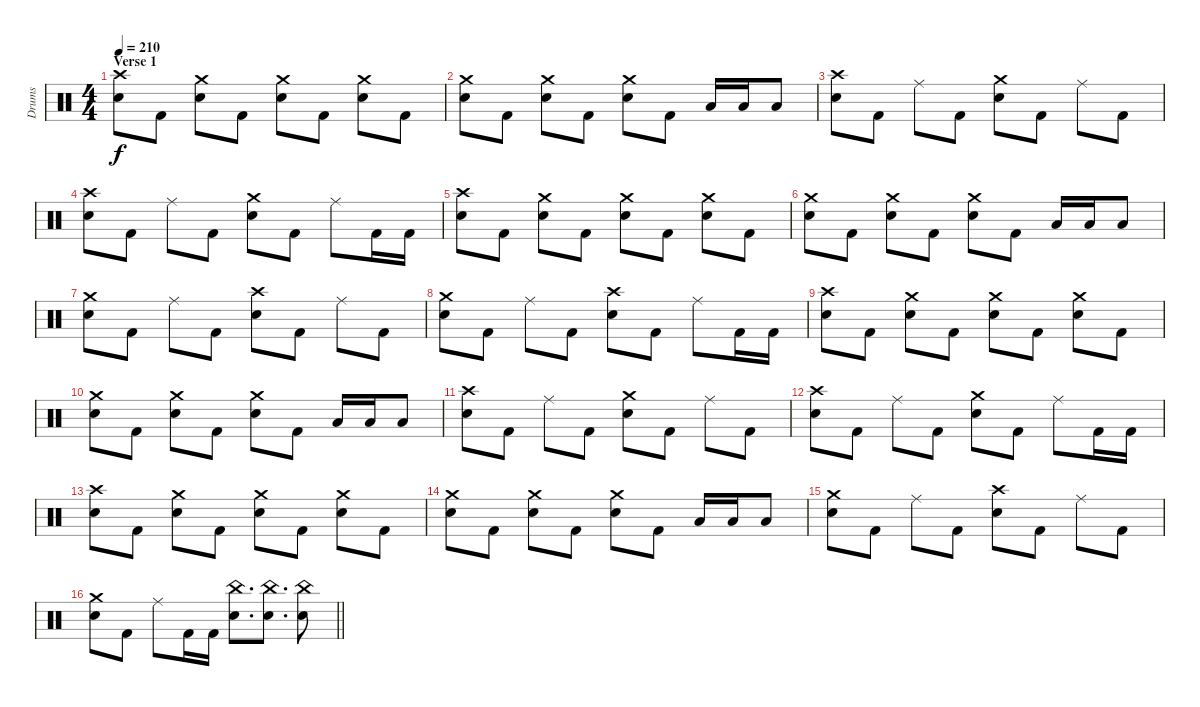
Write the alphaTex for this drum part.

\track ("Drums" "Drums") {instrument percussion}
\staff {score}
\articulation defaults
\ts (4 4)
\section ("" "Verse 1")
\tempo 210
\clef neutral
\ks c
("Crash high (hit)" "Electric Snare (hit)").8{dy f} "Kick (hit) 2".8 ("Crash medium (hit)" "Electric Snare (hit)").8 "Kick (hit) 2".8 ("Crash medium (hit)" "Electric Snare (hit)").8 "Kick (hit) 2".8 ("Crash medium (hit)" "Electric Snare (hit)").8 "Kick (hit) 2".8 |
("Crash medium (hit)" "Electric Snare (hit)").8 "Kick (hit) 2".8 ("Crash medium (hit)" "Electric Snare (hit)").8 "Kick (hit) 2".8 ("Crash medium (hit)" "Electric Snare (hit)").8 "Kick (hit) 2".8 "Low Tom (hit)".16 "Low Tom (hit)".16 "Low Tom (hit)".8 |
("Crash high (hit)" "Electric Snare (hit)").8 "Kick (hit) 2".8 "Ride (middle)".8 "Kick (hit) 2".8 ("Crash medium (hit)" "Electric Snare (hit)").8 "Kick (hit) 2".8 "Ride (middle)".8 "Kick (hit) 2".8 |
("Crash high (hit)" "Electric Snare (hit)").8 "Kick (hit) 2".8 "Ride (middle)".8 "Kick (hit) 2".8 ("Crash medium (hit)" "Electric Snare (hit)").8 "Kick (hit) 2".8 "Ride (middle)".8 "Kick (hit) 2".16 "Kick (hit) 2".16 |
("Crash high (hit)" "Electric Snare (hit)").8 "Kick (hit) 2".8 ("Crash medium (hit)" "Electric Snare (hit)").8 "Kick (hit) 2".8 ("Crash medium (hit)" "Electric Snare (hit)").8 "Kick (hit) 2".8 ("Crash medium (hit)" "Electric Snare (hit)").8 "Kick (hit) 2".8 |
("Crash medium (hit)" "Electric Snare (hit)").8 "Kick (hit) 2".8 ("Crash medium (hit)" "Electric Snare (hit)").8 "Kick (hit) 2".8 ("Crash medium (hit)" "Electric Snare (hit)").8 "Kick (hit) 2".8 "Low Floor Tom (hit)".16 "Low Floor Tom (hit)".16 "Low Floor Tom (hit)".8 |
("Crash medium (hit)" "Electric Snare (hit)").8 "Kick (hit) 2".8 "Ride (middle)".8 "Kick (hit) 2".8 ("Crash high (hit)" "Electric Snare (hit)").8 "Kick (hit) 2".8 "Ride (middle)".8 "Kick (hit) 2".8 |
("Crash medium (hit)" "Electric Snare (hit)").8 "Kick (hit) 2".8 "Ride (middle)".8 "Kick (hit) 2".8 ("Crash high (hit)" "Electric Snare (hit)").8 "Kick (hit) 2".8 "Ride (middle)".8 "Kick (hit) 2".16 "Kick (hit) 2".16 |
("Crash high (hit)" "Electric Snare (hit)").8 "Kick (hit) 2".8 ("Crash medium (hit)" "Electric Snare (hit)").8 "Kick (hit) 2".8 ("Crash medium (hit)" "Electric Snare (hit)").8 "Kick (hit) 2".8 ("Crash medium (hit)" "Electric Snare (hit)").8 "Kick (hit) 2".8 |
("Crash medium (hit)" "Electric Snare (hit)").8 "Kick (hit) 2".8 ("Crash medium (hit)" "Electric Snare (hit)").8 "Kick (hit) 2".8 ("Crash medium (hit)" "Electric Snare (hit)").8 "Kick (hit) 2".8 "Low Tom (hit)".16 "Low Tom (hit)".16 "Low Tom (hit)".8 |
("Crash high (hit)" "Electric Snare (hit)").8 "Kick (hit) 2".8 "Ride (middle)".8 "Kick (hit) 2".8 ("Crash medium (hit)" "Electric Snare (hit)").8 "Kick (hit) 2".8 "Ride (middle)".8 "Kick (hit) 2".8 |
("Crash high (hit)" "Electric Snare (hit)").8 "Kick (hit) 2".8 "Ride (middle)".8 "Kick (hit) 2".8 ("Crash medium (hit)" "Electric Snare (hit)").8 "Kick (hit) 2".8 "Ride (middle)".8 "Kick (hit) 2".16 "Kick (hit) 2".16 |
("Crash high (hit)" "Electric Snare (hit)").8 "Kick (hit) 2".8 ("Crash medium (hit)" "Electric Snare (hit)").8 "Kick (hit) 2".8 ("Crash medium (hit)" "Electric Snare (hit)").8 "Kick (hit) 2".8 ("Crash medium (hit)" "Electric Snare (hit)").8 "Kick (hit) 2".8 |
("Crash medium (hit)" "Electric Snare (hit)").8 "Kick (hit) 2".8 ("Crash medium (hit)" "Electric Snare (hit)").8 "Kick (hit) 2".8 ("Crash medium (hit)" "Electric Snare (hit)").8 "Kick (hit) 2".8 "Low Floor Tom (hit)".16 "Low Floor Tom (hit)".16 "Low Floor Tom (hit)".8 |
("Crash medium (hit)" "Electric Snare (hit)").8 "Kick (hit) 2".8 "Ride (middle)".8 "Kick (hit) 2".8 ("Crash high (hit)" "Electric Snare (hit)").8 "Kick (hit) 2".8 "Ride (middle)".8 "Kick (hit) 2".8 |
\barLineRight lightlight
("Crash medium (hit)" "Electric Snare (hit)").8 "Kick (hit) 2".8 "Ride (middle)".8 "Kick (hit) 2".16 "Kick (hit) 2".16 ("China (hit)" "Electric Snare (hit)").8{d} ("China (hit)" "Electric Snare (hit)").8{d} ("China (hit)" "Electric Snare (hit)").8
